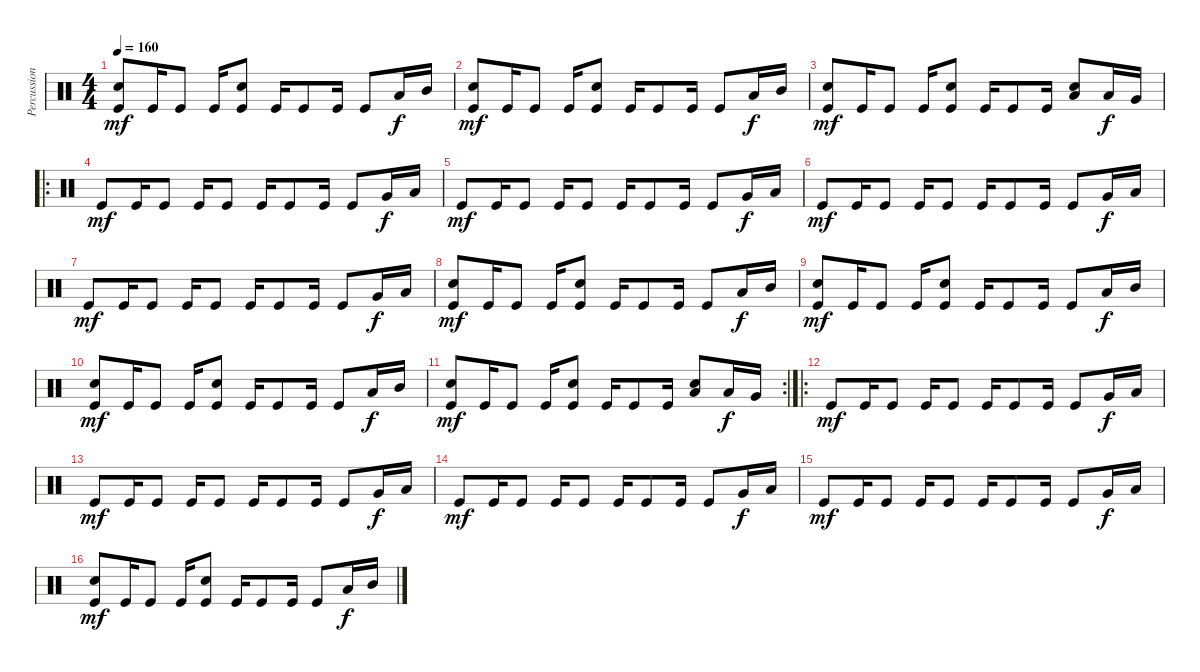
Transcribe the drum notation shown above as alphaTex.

\track ("Percussion" "Percussion") {instrument percussion}
\staff {score}
\articulation defaults
\ts (4 4)
\tempo 160
\clef neutral
\ks c
("Kick (hit)" "Electric Snare (hit)").8{dy mf} "Kick (hit)".16 "Kick (hit)".8 "Kick (hit)".16 ("Kick (hit)" "Electric Snare (hit)").8 "Kick (hit)".16 "Kick (hit)".8 "Kick (hit)".16 "Kick (hit)".8 "Low Tom (hit)".16{dy f} "Mid Tom (hit)".16 |
("Kick (hit)" "Electric Snare (hit)").8{dy mf} "Kick (hit)".16 "Kick (hit)".8 "Kick (hit)".16 ("Kick (hit)" "Snare (hit) 2").8 "Kick (hit)".16 "Kick (hit)".8 "Kick (hit)".16 "Kick (hit)".8 "Low Tom (hit)".16{dy f} "Mid Tom (hit)".16 |
("Kick (hit)" "Electric Snare (hit)").8{dy mf} "Kick (hit)".16 "Kick (hit)".8 "Kick (hit)".16 ("Kick (hit)" "Electric Snare (hit)").8 "Kick (hit)".16 "Kick (hit)".8 "Kick (hit)".16 ("Low Tom (hit)" "Electric Snare (hit)").8 "Low Tom (hit)".16{dy f} "Very Low Tom (hit)".16 |
\ro "Kick (hit)".8{dy mf} "Kick (hit)".16 "Kick (hit)".8 "Kick (hit)".16 "Kick (hit)".8 "Kick (hit)".16 "Kick (hit)".8 "Kick (hit)".16 "Kick (hit)".8 "Very Low Tom (hit)".16{dy f} "Low Tom (hit)".16
|
"Kick (hit)".8{dy mf} "Kick (hit)".16 "Kick (hit)".8 "Kick (hit)".16 "Kick (hit)".8 "Kick (hit)".16 "Kick (hit)".8 "Kick (hit)".16 "Kick (hit)".8 "Very Low Tom (hit)".16{dy f} "Low Tom (hit)".16 |
"Kick (hit)".8{dy mf} "Kick (hit)".16 "Kick (hit)".8 "Kick (hit)".16 "Kick (hit)".8 "Kick (hit)".16 "Kick (hit)".8 "Kick (hit)".16 "Kick (hit)".8 "Very Low Tom (hit)".16{dy f} "Low Tom (hit)".16 |
"Kick (hit)".8{dy mf} "Kick (hit)".16 "Kick (hit)".8 "Kick (hit)".16 "Kick (hit)".8 "Kick (hit)".16 "Kick (hit)".8 "Kick (hit)".16 "Kick (hit)".8 "Very Low Tom (hit)".16{dy f} "Low Tom (hit)".16 |
("Kick (hit)" "Electric Snare (hit)").8{dy mf} "Kick (hit)".16 "Kick (hit)".8 "Kick (hit)".16 ("Kick (hit)" "Snare (hit) 2").8 "Kick (hit)".16 "Kick (hit)".8 "Kick (hit)".16 "Kick (hit)".8 "Low Tom (hit)".16{dy f} "Mid Tom (hit)".16 |
("Kick (hit)" "Electric Snare (hit)").8{dy mf} "Kick (hit)".16 "Kick (hit)".8 "Kick (hit)".16 ("Kick (hit)" "Electric Snare (hit)").8 "Kick (hit)".16 "Kick (hit)".8 "Kick (hit)".16 "Kick (hit)".8 "Low Tom (hit)".16{dy f} "Mid Tom (hit)".16 |
("Kick (hit)" "Electric Snare (hit)").8{dy mf} "Kick (hit)".16 "Kick (hit)".8 "Kick (hit)".16 ("Kick (hit)" "Snare (hit) 2").8 "Kick (hit)".16 "Kick (hit)".8 "Kick (hit)".16 "Kick (hit)".8 "Low Tom (hit)".16{dy f} "Mid Tom (hit)".16 |
\rc 2
("Kick (hit)" "Electric Snare (hit)").8{dy mf} "Kick (hit)".16 "Kick (hit)".8 "Kick (hit)".16 ("Kick (hit)" "Electric Snare (hit)").8 "Kick (hit)".16 "Kick (hit)".8 "Kick (hit)".16 ("Low Tom (hit)" "Electric Snare (hit)").8 "Low Tom (hit)".16{dy f} "Very Low Tom (hit)".16 |
\ro "Kick (hit)".8{dy mf} "Kick (hit)".16 "Kick (hit)".8 "Kick (hit)".16 "Kick (hit)".8 "Kick (hit)".16 "Kick (hit)".8 "Kick (hit)".16 "Kick (hit)".8 "Very Low Tom (hit)".16{dy f} "Low Tom (hit)".16
|
"Kick (hit)".8{dy mf} "Kick (hit)".16 "Kick (hit)".8 "Kick (hit)".16 "Kick (hit)".8 "Kick (hit)".16 "Kick (hit)".8 "Kick (hit)".16 "Kick (hit)".8 "Very Low Tom (hit)".16{dy f} "Low Tom (hit)".16 |
"Kick (hit)".8{dy mf} "Kick (hit)".16 "Kick (hit)".8 "Kick (hit)".16 "Kick (hit)".8 "Kick (hit)".16 "Kick (hit)".8 "Kick (hit)".16 "Kick (hit)".8 "Very Low Tom (hit)".16{dy f} "Low Tom (hit)".16 |
"Kick (hit)".8{dy mf} "Kick (hit)".16 "Kick (hit)".8 "Kick (hit)".16 "Kick (hit)".8 "Kick (hit)".16 "Kick (hit)".8 "Kick (hit)".16 "Kick (hit)".8 "Very Low Tom (hit)".16{dy f} "Low Tom (hit)".16 |
("Kick (hit)" "Electric Snare (hit)").8{dy mf} "Kick (hit)".16 "Kick (hit)".8 "Kick (hit)".16 ("Kick (hit)" "Snare (hit) 2").8 "Kick (hit)".16 "Kick (hit)".8 "Kick (hit)".16 "Kick (hit)".8 "Low Tom (hit)".16{dy f} "Mid Tom (hit)".16
